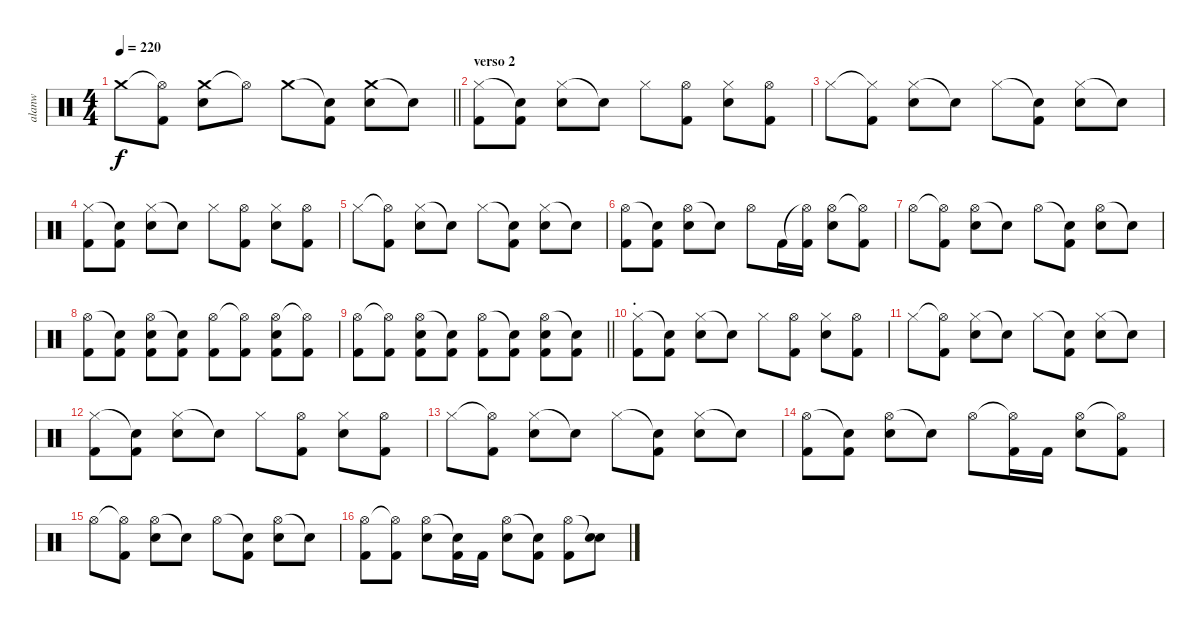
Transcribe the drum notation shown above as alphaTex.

\track ("alanw" "alanw") {instrument percussion}
\staff {score}
\articulation defaults
\ts (4 4)
\tempo 220
\clef neutral
\barLineRight lightlight
\ks c "Crash medium (hit)".8{dy f}
("Hi-Hat (open)"{t} "Kick (hit) 2").8 ("Crash medium (hit)" "Electric Snare (hit)").8 "Hi-Hat (open)"{t}.8 "Crash medium (hit)".8 ("Snare (hit)"{t} "Kick (hit) 2").8 ("Crash medium (hit)" "Electric Snare (hit)").8 "Snare (hit)"{t}.8 |
\section ("" "verso 2")
("Hi-Hat (closed)" "Kick (hit) 2").8 ("Snare (hit)"{t} "Kick (hit) 2").8 ("Hi-Hat (closed)" "Electric Snare (hit)").8 "Snare (hit)"{t}.8 "Hi-Hat (closed)".8 ("Hi-Hat (open)" "Kick (hit) 2").8 ("Hi-Hat (closed)" "Electric Snare (hit)").8 ("Hi-Hat (open)" "Kick (hit) 2").8 |
"Hi-Hat (closed)".8 ("Hi-Hat (closed)"{t} "Kick (hit) 2").8 ("Hi-Hat (closed)" "Electric Snare (hit)").8 "Snare (hit)"{t}.8 "Hi-Hat (closed)".8 ("Snare (hit)"{t} "Kick (hit) 2").8 ("Hi-Hat (closed)" "Electric Snare (hit)").8 "Snare (hit)"{t}.8 |
("Hi-Hat (closed)" "Kick (hit) 2").8 ("Snare (hit)"{t} "Kick (hit) 2").8 ("Hi-Hat (closed)" "Electric Snare (hit)").8 "Snare (hit)"{t}.8 "Hi-Hat (closed)".8 ("Hi-Hat (open)" "Kick (hit) 2").8 ("Hi-Hat (closed)" "Electric Snare (hit)").8 ("Hi-Hat (open)" "Kick (hit) 2").8 |
"Hi-Hat (closed)".8 ("Hi-Hat (open)"{t} "Kick (hit) 2").8 ("Hi-Hat (closed)" "Electric Snare (hit)").8 "Snare (hit)"{t}.8 "Hi-Hat (closed)".8 ("Snare (hit)"{t} "Kick (hit) 2").8 ("Hi-Hat (closed)" "Electric Snare (hit)").8 "Snare (hit)"{t}.8 |
("Hi-Hat (open)" "Kick (hit) 2").8 ("Snare (hit)"{t} "Kick (hit) 2").8 ("Hi-Hat (open)" "Electric Snare (hit)").8 "Snare (hit)"{t}.8 "Hi-Hat (open)".8 "Kick (hit) 2".16 ("Hi-Hat (open)"{t} "Kick (hit) 2").16 ("Hi-Hat (open)" "Electric Snare (hit)").8 ("Hi-Hat (open)"{t} "Kick (hit) 2").8 |
"Hi-Hat (open)".8 ("Hi-Hat (open)"{t} "Kick (hit) 2").8 ("Hi-Hat (open)" "Electric Snare (hit)").8 "Snare (hit)"{t}.8 "Hi-Hat (open)".8 ("Snare (hit)"{t} "Kick (hit) 2").8 ("Hi-Hat (open)" "Electric Snare (hit)").8 "Snare (hit)"{t}.8 |
("Hi-Hat (open)" "Kick (hit) 2").8 ("Snare (hit)"{t} "Kick (hit) 2").8 ("Hi-Hat (open)" "Electric Snare (hit)" "Kick (hit) 2").8 ("Snare (hit)"{t} "Kick (hit) 2").8 ("Hi-Hat (open)" "Kick (hit) 2").8 ("Hi-Hat (open)"{t} "Kick (hit) 2").8 ("Hi-Hat (open)" "Electric Snare (hit)" "Kick (hit) 2").8 ("Hi-Hat (open)"{t} "Kick (hit) 2").8 |
\barLineRight lightlight
("Hi-Hat (open)" "Kick (hit) 2").8 ("Hi-Hat (open)"{t} "Kick (hit) 2").8 ("Hi-Hat (open)" "Electric Snare (hit)" "Kick (hit) 2").8 ("Snare (hit)"{t} "Kick (hit) 2").8 ("Hi-Hat (open)" "Kick (hit) 2").8 ("Snare (hit)"{t} "Kick (hit) 2").8 ("Hi-Hat (open)" "Electric Snare (hit)" "Kick (hit) 2").8 ("Snare (hit)"{t} "Kick (hit) 2").8 |
\section ("" ".")
("Hi-Hat (closed)" "Kick (hit) 2").8 ("Snare (hit)"{t} "Kick (hit) 2").8 ("Hi-Hat (closed)" "Electric Snare (hit)").8 "Snare (hit)"{t}.8 "Hi-Hat (closed)".8 ("Hi-Hat (open)" "Kick (hit) 2").8 ("Hi-Hat (closed)" "Electric Snare (hit)").8 ("Hi-Hat (open)" "Kick (hit) 2").8 |
"Hi-Hat (closed)".8 ("Hi-Hat (open)"{t} "Kick (hit) 2").8 ("Hi-Hat (closed)" "Electric Snare (hit)").8 "Snare (hit)"{t}.8 "Hi-Hat (closed)".8 ("Snare (hit)"{t} "Kick (hit) 2").8 ("Hi-Hat (closed)" "Electric Snare (hit)").8 "Snare (hit)"{t}.8 |
("Hi-Hat (closed)" "Kick (hit) 2").8 ("Snare (hit)"{t} "Kick (hit) 2").8 ("Hi-Hat (closed)" "Electric Snare (hit)").8 "Snare (hit)"{t}.8 "Hi-Hat (closed)".8 ("Hi-Hat (open)" "Kick (hit) 2").8 ("Hi-Hat (closed)" "Electric Snare (hit)").8 ("Hi-Hat (open)" "Kick (hit) 2").8 |
"Hi-Hat (closed)".8 ("Hi-Hat (open)"{t} "Kick (hit) 2").8 ("Hi-Hat (closed)" "Electric Snare (hit)").8 "Snare (hit)"{t}.8 "Hi-Hat (closed)".8 ("Snare (hit)"{t} "Kick (hit) 2").8 ("Hi-Hat (closed)" "Electric Snare (hit)").8 "Snare (hit)"{t}.8 |
("Hi-Hat (open)" "Kick (hit) 2").8 ("Snare (hit)"{t} "Kick (hit) 2").8 ("Hi-Hat (open)" "Electric Snare (hit)").8 "Snare (hit)"{t}.8 "Hi-Hat (open)".8 ("Hi-Hat (open)"{t} "Kick (hit) 2").16 "Kick (hit) 2".16 ("Hi-Hat (open)" "Electric Snare (hit)").8 ("Hi-Hat (open)"{t} "Kick (hit) 2").8 |
"Hi-Hat (open)".8 ("Hi-Hat (open)"{t} "Kick (hit) 2").8 ("Hi-Hat (open)" "Electric Snare (hit)").8 "Snare (hit)"{t}.8 "Hi-Hat (open)".8 ("Snare (hit)"{t} "Kick (hit) 2").8 ("Hi-Hat (open)" "Electric Snare (hit)").8 "Snare (hit)"{t}.8 |
("Hi-Hat (open)" "Kick (hit) 2").8 ("Hi-Hat (open)"{t} "Kick (hit) 2").8 ("Hi-Hat (open)" "Electric Snare (hit)").8 ("Snare (hit)"{t} "Kick (hit) 2").16 "Kick (hit) 2".16 ("Hi-Hat (open)" "Electric Snare (hit)").8 ("Snare (hit)"{t} "Kick (hit) 2").8 ("Hi-Hat (open)" "Kick (hit) 2").8 ("Snare (hit)"{t} "Electric Snare (hit)").8
